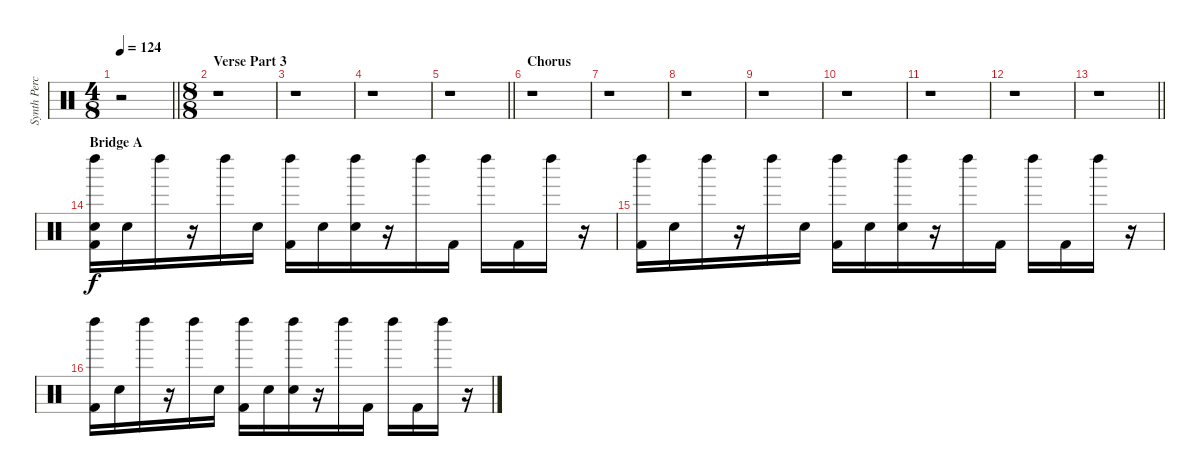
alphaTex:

\track ("Synth Percussion" "Synth Perc") {instrument percussion}
\staff {score}
\articulation defaults
\ts (4 8)
\tempo 124
\clef neutral
\barLineRight lightlight
\ks c
r.2{dy mp} |
\ts (8 8)
\section ("" "Verse Part 3")
r.1 |
r.1 |
r.1 |
\barLineRight lightlight
r.1 |
\section ("" "Chorus")
r.1 |
r.1 |
r.1 |
r.1 |
r.1 |
r.1 |
r.1 |
\barLineRight lightlight
r.1 |
\section ("" "Bridge A")
("Hand Clap (hit)" "Left Maraca (hit)" "Kick (hit) 2").16{dy f} "Hand Clap (hit)".16 "Left Maraca (hit)".16 r.16 "Left Maraca (hit)".16 "Hand Clap (hit)".16 ("Left Maraca (hit)" "Kick (hit) 2").16 "Hand Clap (hit)".16 ("Snare (hit) 2" "Left Maraca (hit)").16 r.16 "Left Maraca (hit)".16 "Kick (hit) 2".16 "Left Maraca (hit)".16 "Kick (hit) 2".16 "Left Maraca (hit)".16 r.16 |
("Left Maraca (hit)" "Kick (hit) 2").16 "Hand Clap (hit)".16 "Left Maraca (hit)".16 r.16 "Left Maraca (hit)".16 "Hand Clap (hit)".16 ("Left Maraca (hit)" "Kick (hit) 2").16 "Hand Clap (hit)".16 ("Snare (hit) 2" "Left Maraca (hit)").16 r.16 "Left Maraca (hit)".16 "Kick (hit) 2".16 "Left Maraca (hit)".16 "Kick (hit) 2".16 "Left Maraca (hit)".16 r.16 |
("Left Maraca (hit)" "Kick (hit) 2").16 "Hand Clap (hit)".16 "Left Maraca (hit)".16 r.16 "Left Maraca (hit)".16 "Hand Clap (hit)".16 ("Left Maraca (hit)" "Kick (hit) 2").16 "Hand Clap (hit)".16 ("Snare (hit) 2" "Left Maraca (hit)").16 r.16 "Left Maraca (hit)".16 "Kick (hit) 2".16 "Left Maraca (hit)".16 "Kick (hit) 2".16 "Left Maraca (hit)".16 r.16
